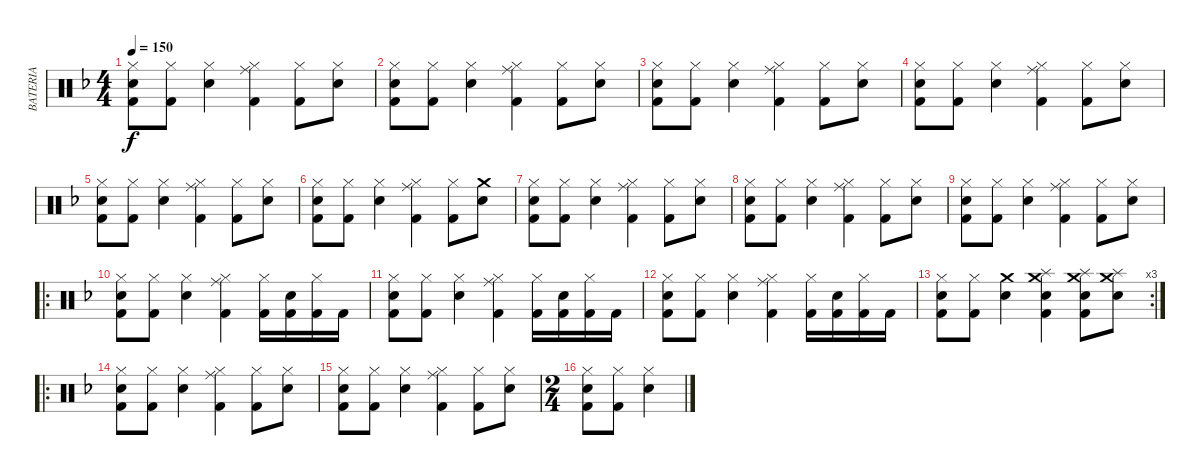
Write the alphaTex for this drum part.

\track ("BATERIA" "BATERIA") {instrument percussion}
\staff {score}
\articulation defaults
\ts (4 4)
\tempo 150
\clef neutral
\ks dminor
("Hi-Hat (closed)" "Snare (hit) 2" "Kick (hit) 2").8{dy f} ("Hi-Hat (closed)" "Kick (hit) 2").8 ("Hi-Hat (closed)" "Snare (hit) 2").4 ("Hi-Hat (closed)" "Ride (middle)" "Kick (hit) 2").4 ("Hi-Hat (closed)" "Kick (hit) 2").8 ("Hi-Hat (closed)" "Snare (hit) 2").8 |
("Hi-Hat (closed)" "Snare (hit) 2" "Kick (hit) 2").8 ("Hi-Hat (closed)" "Kick (hit) 2").8 ("Hi-Hat (closed)" "Snare (hit) 2").4 ("Hi-Hat (closed)" "Ride (middle)" "Kick (hit) 2").4 ("Hi-Hat (closed)" "Kick (hit) 2").8 ("Hi-Hat (closed)" "Snare (hit) 2").8 |
("Hi-Hat (closed)" "Snare (hit) 2" "Kick (hit) 2").8 ("Hi-Hat (closed)" "Kick (hit) 2").8 ("Hi-Hat (closed)" "Snare (hit) 2").4 ("Hi-Hat (closed)" "Ride (middle)" "Kick (hit) 2").4 ("Hi-Hat (closed)" "Kick (hit) 2").8 ("Hi-Hat (closed)" "Snare (hit) 2").8 |
("Hi-Hat (closed)" "Snare (hit) 2" "Kick (hit) 2").8 ("Hi-Hat (closed)" "Kick (hit) 2").8 ("Hi-Hat (closed)" "Snare (hit) 2").4 ("Hi-Hat (closed)" "Ride (middle)" "Kick (hit) 2").4 ("Hi-Hat (closed)" "Kick (hit) 2").8 ("Hi-Hat (closed)" "Snare (hit) 2").8 |
("Hi-Hat (closed)" "Snare (hit) 2" "Kick (hit) 2").8 ("Hi-Hat (closed)" "Kick (hit) 2").8 ("Hi-Hat (closed)" "Snare (hit) 2").4 ("Hi-Hat (closed)" "Ride (middle)" "Kick (hit) 2").4 ("Hi-Hat (closed)" "Kick (hit) 2").8 ("Hi-Hat (closed)" "Snare (hit) 2").8 |
("Hi-Hat (closed)" "Snare (hit) 2" "Kick (hit) 2").8 ("Hi-Hat (closed)" "Kick (hit) 2").8 ("Hi-Hat (closed)" "Snare (hit) 2").4 ("Hi-Hat (closed)" "Ride (middle)" "Kick (hit) 2").4 ("Hi-Hat (closed)" "Kick (hit) 2").8 ("Crash medium (hit)" "Snare (hit) 2").8 |
("Hi-Hat (closed)" "Snare (hit) 2" "Kick (hit) 2").8 ("Hi-Hat (closed)" "Kick (hit) 2").8 ("Hi-Hat (closed)" "Snare (hit) 2").4 ("Hi-Hat (closed)" "Ride (middle)" "Kick (hit) 2").4 ("Hi-Hat (closed)" "Kick (hit) 2").8 ("Hi-Hat (closed)" "Snare (hit) 2").8 |
("Hi-Hat (closed)" "Snare (hit) 2" "Kick (hit) 2").8 ("Hi-Hat (closed)" "Kick (hit) 2").8 ("Hi-Hat (closed)" "Snare (hit) 2").4 ("Hi-Hat (closed)" "Ride (middle)" "Kick (hit) 2").4 ("Hi-Hat (closed)" "Kick (hit) 2").8 ("Hi-Hat (closed)" "Snare (hit) 2").8 |
("Hi-Hat (closed)" "Snare (hit) 2" "Kick (hit) 2").8 ("Hi-Hat (closed)" "Kick (hit) 2").8 ("Hi-Hat (closed)" "Snare (hit) 2").4 ("Hi-Hat (closed)" "Ride (middle)" "Kick (hit) 2").4 ("Hi-Hat (closed)" "Kick (hit) 2").8 ("Hi-Hat (closed)" "Snare (hit) 2").8 |
\ro
("Hi-Hat (closed)" "Snare (hit) 2" "Kick (hit) 2").8 ("Hi-Hat (closed)" "Kick (hit) 2").8 ("Hi-Hat (closed)" "Snare (hit) 2").4 ("Hi-Hat (closed)" "Ride (middle)" "Kick (hit) 2").4 ("Hi-Hat (closed)" "Kick (hit) 2").16 ("Snare (hit) 2" "Kick (hit) 2").16 ("Hi-Hat (closed)" "Kick (hit) 2").16 "Kick (hit) 2".16 |
("Hi-Hat (closed)" "Snare (hit) 2" "Kick (hit) 2").8 ("Hi-Hat (closed)" "Kick (hit) 2").8 ("Hi-Hat (closed)" "Snare (hit) 2").4 ("Hi-Hat (closed)" "Ride (middle)" "Kick (hit) 2").4 ("Hi-Hat (closed)" "Kick (hit) 2").16 ("Snare (hit) 2" "Kick (hit) 2").16 ("Hi-Hat (closed)" "Kick (hit) 2").16 "Kick (hit) 2".16 |
("Hi-Hat (closed)" "Snare (hit) 2" "Kick (hit) 2").8 ("Hi-Hat (closed)" "Kick (hit) 2").8 ("Hi-Hat (closed)" "Snare (hit) 2").4 ("Hi-Hat (closed)" "Ride (middle)" "Kick (hit) 2").4 ("Hi-Hat (closed)" "Kick (hit) 2").16 ("Snare (hit) 2" "Kick (hit) 2").16 ("Hi-Hat (closed)" "Kick (hit) 2").16 "Kick (hit) 2".16 |
\rc 3
("Hi-Hat (closed)" "Snare (hit) 2" "Kick (hit) 2").8 ("Hi-Hat (closed)" "Kick (hit) 2").8 ("Crash medium (hit)" "Snare (hit) 2").4 ("Splash (hit)" "Crash medium (hit)" "Snare (hit) 2" "Kick (hit) 2").4 ("Splash (hit)" "Crash medium (hit)" "Snare (hit) 2" "Kick (hit) 2").8 ("Splash (hit)" "Crash medium (hit)" "Snare (hit) 2").8 |
\ro
("Hi-Hat (closed)" "Snare (hit) 2" "Kick (hit) 2").8 ("Hi-Hat (closed)" "Kick (hit) 2").8 ("Hi-Hat (closed)" "Snare (hit) 2").4 ("Hi-Hat (closed)" "Ride (middle)" "Kick (hit) 2").4 ("Hi-Hat (closed)" "Kick (hit) 2").8 ("Hi-Hat (closed)" "Snare (hit) 2").8 |
("Hi-Hat (closed)" "Snare (hit) 2" "Kick (hit) 2").8 ("Hi-Hat (closed)" "Kick (hit) 2").8 ("Hi-Hat (closed)" "Snare (hit) 2").4 ("Hi-Hat (closed)" "Ride (middle)" "Kick (hit) 2").4 ("Hi-Hat (closed)" "Kick (hit) 2").8 ("Hi-Hat (closed)" "Snare (hit) 2").8 |
\ts (2 4)
("Hi-Hat (closed)" "Snare (hit) 2" "Kick (hit) 2").8 ("Hi-Hat (closed)" "Kick (hit) 2").8 ("Hi-Hat (closed)" "Snare (hit) 2").4
